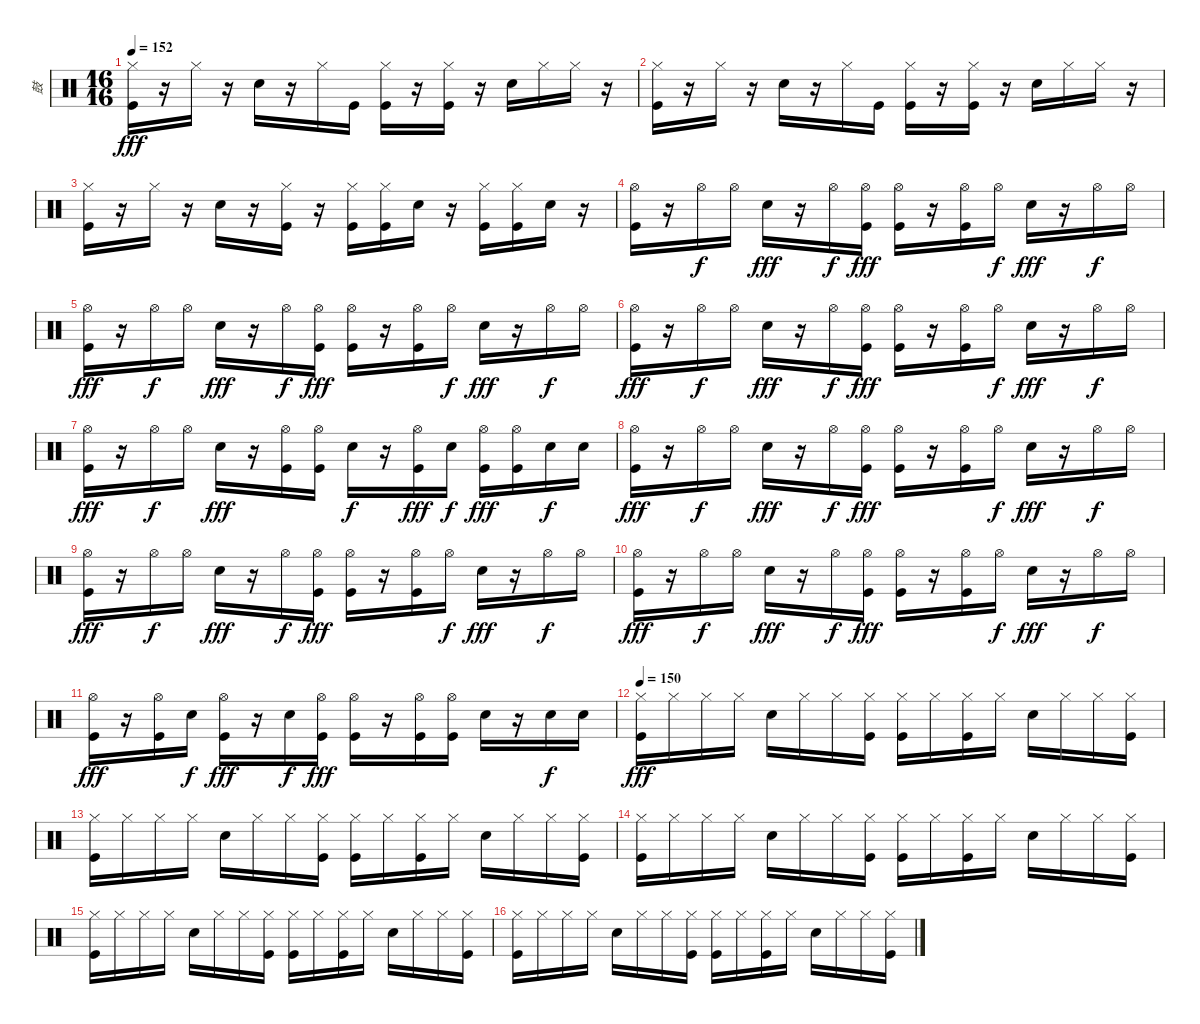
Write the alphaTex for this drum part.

\track ("鼓" "鼓") {instrument percussion}
\staff {score}
\articulation defaults
\ts (16 16)
\tempo 152
\clef neutral
\ks c
("Kick (hit)" "Hi-Hat (closed)").16{dy fff} r.16 "Hi-Hat (closed)".16 r.16 "Snare (hit) 2".16 r.16 "Hi-Hat (closed)".16 "Kick (hit)".16 ("Hi-Hat (closed)" "Kick (hit)").16 r.16 ("Hi-Hat (closed)" "Kick (hit)").16 r.16 "Snare (hit) 2".16 "Hi-Hat (closed)".16 "Hi-Hat (closed)".16 r.16 |
("Kick (hit)" "Hi-Hat (closed)").16 r.16 "Hi-Hat (closed)".16 r.16 "Snare (hit) 2".16 r.16 "Hi-Hat (closed)".16 "Kick (hit)".16 ("Hi-Hat (closed)" "Kick (hit)").16 r.16 ("Hi-Hat (closed)" "Kick (hit)").16 r.16 "Snare (hit) 2".16 "Hi-Hat (closed)".16 "Hi-Hat (closed)".16 r.16 |
("Kick (hit)" "Hi-Hat (closed)").16 r.16 "Hi-Hat (closed)".16 r.16 "Snare (hit) 2".16 r.16 ("Hi-Hat (closed)" "Kick (hit)").16 r.16 ("Hi-Hat (closed)" "Kick (hit)").16 ("Hi-Hat (closed)" "Kick (hit)").16 "Snare (hit) 2".16 r.16 ("Hi-Hat (closed)" "Kick (hit)").16 ("Hi-Hat (closed)" "Kick (hit)").16 "Snare (hit) 2".16 r.16 |
("Kick (hit)" "Hi-Hat (open)").16 r.16 "Hi-Hat (open)".16{dy f} "Hi-Hat (open)".16 "Snare (hit) 2".16{dy fff} r.16 "Hi-Hat (open)".16{dy f} ("Kick (hit)" "Hi-Hat (open)").16{dy fff} ("Kick (hit)" "Hi-Hat (open)").16 r.16 ("Kick (hit)" "Hi-Hat (open)").16 "Hi-Hat (open)".16{dy f} "Snare (hit) 2".16{dy fff} r.16 "Hi-Hat (open)".16{dy f} "Hi-Hat (open)".16 |
("Kick (hit)" "Hi-Hat (open)").16{dy fff} r.16 "Hi-Hat (open)".16{dy f} "Hi-Hat (open)".16 "Snare (hit) 2".16{dy fff} r.16 "Hi-Hat (open)".16{dy f} ("Kick (hit)" "Hi-Hat (open)").16{dy fff} ("Kick (hit)" "Hi-Hat (open)").16 r.16 ("Kick (hit)" "Hi-Hat (open)").16 "Hi-Hat (open)".16{dy f} "Snare (hit) 2".16{dy fff} r.16 "Hi-Hat (open)".16{dy f} "Hi-Hat (open)".16 |
("Kick (hit)" "Hi-Hat (open)").16{dy fff} r.16 "Hi-Hat (open)".16{dy f} "Hi-Hat (open)".16 "Snare (hit) 2".16{dy fff} r.16 "Hi-Hat (open)".16{dy f} ("Kick (hit)" "Hi-Hat (open)").16{dy fff} ("Kick (hit)" "Hi-Hat (open)").16 r.16 ("Kick (hit)" "Hi-Hat (open)").16 "Hi-Hat (open)".16{dy f} "Snare (hit) 2".16{dy fff} r.16 "Hi-Hat (open)".16{dy f} "Hi-Hat (open)".16 |
("Kick (hit)" "Hi-Hat (open)").16{dy fff} r.16 "Hi-Hat (open)".16{dy f} "Hi-Hat (open)".16 "Snare (hit) 2".16{dy fff} r.16 ("Hi-Hat (open)" "Kick (hit)").16 ("Hi-Hat (open)" "Kick (hit)").16 "Snare (hit) 2".16{dy f} r.16 ("Hi-Hat (open)" "Kick (hit)").16{dy fff} "Snare (hit) 2".16{dy f} ("Hi-Hat (open)" "Kick (hit)").16{dy fff} ("Hi-Hat (open)" "Kick (hit)").16 "Snare (hit) 2".16{dy f} "Snare (hit) 2".16 |
("Kick (hit)" "Hi-Hat (open)").16{dy fff} r.16 "Hi-Hat (open)".16{dy f} "Hi-Hat (open)".16 "Snare (hit) 2".16{dy fff} r.16 "Hi-Hat (open)".16{dy f} ("Kick (hit)" "Hi-Hat (open)").16{dy fff} ("Kick (hit)" "Hi-Hat (open)").16 r.16 ("Kick (hit)" "Hi-Hat (open)").16 "Hi-Hat (open)".16{dy f} "Snare (hit) 2".16{dy fff} r.16 "Hi-Hat (open)".16{dy f} "Hi-Hat (open)".16 |
("Kick (hit)" "Hi-Hat (open)").16{dy fff} r.16 "Hi-Hat (open)".16{dy f} "Hi-Hat (open)".16 "Snare (hit) 2".16{dy fff} r.16 "Hi-Hat (open)".16{dy f} ("Kick (hit)" "Hi-Hat (open)").16{dy fff} ("Kick (hit)" "Hi-Hat (open)").16 r.16 ("Kick (hit)" "Hi-Hat (open)").16 "Hi-Hat (open)".16{dy f} "Snare (hit) 2".16{dy fff} r.16 "Hi-Hat (open)".16{dy f} "Hi-Hat (open)".16 |
("Kick (hit)" "Hi-Hat (open)").16{dy fff} r.16 "Hi-Hat (open)".16{dy f} "Hi-Hat (open)".16 "Snare (hit) 2".16{dy fff} r.16 "Hi-Hat (open)".16{dy f} ("Kick (hit)" "Hi-Hat (open)").16{dy fff} ("Kick (hit)" "Hi-Hat (open)").16 r.16 ("Kick (hit)" "Hi-Hat (open)").16 "Hi-Hat (open)".16{dy f} "Snare (hit) 2".16{dy fff} r.16 "Hi-Hat (open)".16{dy f} "Hi-Hat (open)".16 |
("Kick (hit)" "Hi-Hat (open)").16{dy fff} r.16 ("Hi-Hat (open)" "Kick (hit)").16 "Snare (hit) 2".16{dy f} ("Hi-Hat (open)" "Kick (hit)").16{dy fff} r.16 "Snare (hit) 2".16{dy f} ("Hi-Hat (open)" "Kick (hit)").16{dy fff} ("Hi-Hat (open)" "Kick (hit)").16 r.16 ("Hi-Hat (open)" "Kick (hit)").16 ("Hi-Hat (open)" "Kick (hit)").16 "Snare (hit) 2".16 r.16 "Snare (hit) 2".16{dy f} "Snare (hit) 2".16 |
\tempo 150
("Hi-Hat (closed)" "Kick (hit)").16{dy fff} "Hi-Hat (closed)".16 "Hi-Hat (closed)".16 "Hi-Hat (closed)".16 "Snare (hit) 2".16 "Hi-Hat (closed)".16 "Hi-Hat (closed)".16 ("Hi-Hat (closed)" "Kick (hit)").16 ("Hi-Hat (closed)" "Kick (hit)").16 "Hi-Hat (closed)".16 ("Hi-Hat (closed)" "Kick (hit)").16 "Hi-Hat (closed)".16 "Snare (hit) 2".16 "Hi-Hat (closed)".16 "Hi-Hat (closed)".16 ("Hi-Hat (closed)" "Kick (hit)").16 |
("Hi-Hat (closed)" "Kick (hit)").16 "Hi-Hat (closed)".16 "Hi-Hat (closed)".16 "Hi-Hat (closed)".16 "Snare (hit) 2".16 "Hi-Hat (closed)".16 "Hi-Hat (closed)".16 ("Hi-Hat (closed)" "Kick (hit)").16 ("Hi-Hat (closed)" "Kick (hit)").16 "Hi-Hat (closed)".16 ("Hi-Hat (closed)" "Kick (hit)").16 "Hi-Hat (closed)".16 "Snare (hit) 2".16 "Hi-Hat (closed)".16 "Hi-Hat (closed)".16 ("Hi-Hat (closed)" "Kick (hit)").16 |
("Hi-Hat (closed)" "Kick (hit)").16 "Hi-Hat (closed)".16 "Hi-Hat (closed)".16 "Hi-Hat (closed)".16 "Snare (hit) 2".16 "Hi-Hat (closed)".16 "Hi-Hat (closed)".16 ("Hi-Hat (closed)" "Kick (hit)").16 ("Hi-Hat (closed)" "Kick (hit)").16 "Hi-Hat (closed)".16 ("Hi-Hat (closed)" "Kick (hit)").16 "Hi-Hat (closed)".16 "Snare (hit) 2".16 "Hi-Hat (closed)".16 "Hi-Hat (closed)".16 ("Hi-Hat (closed)" "Kick (hit)").16 |
("Hi-Hat (closed)" "Kick (hit)").16 "Hi-Hat (closed)".16 "Hi-Hat (closed)".16 "Hi-Hat (closed)".16 "Snare (hit) 2".16 "Hi-Hat (closed)".16 "Hi-Hat (closed)".16 ("Hi-Hat (closed)" "Kick (hit)").16 ("Hi-Hat (closed)" "Kick (hit)").16 "Hi-Hat (closed)".16 ("Hi-Hat (closed)" "Kick (hit)").16 "Hi-Hat (closed)".16 "Snare (hit) 2".16 "Hi-Hat (closed)".16 "Hi-Hat (closed)".16 ("Hi-Hat (closed)" "Kick (hit)").16 |
("Hi-Hat (closed)" "Kick (hit)").16 "Hi-Hat (closed)".16 "Hi-Hat (closed)".16 "Hi-Hat (closed)".16 "Snare (hit) 2".16 "Hi-Hat (closed)".16 "Hi-Hat (closed)".16 ("Hi-Hat (closed)" "Kick (hit)").16 ("Hi-Hat (closed)" "Kick (hit)").16 "Hi-Hat (closed)".16 ("Hi-Hat (closed)" "Kick (hit)").16 "Hi-Hat (closed)".16 "Snare (hit) 2".16 "Hi-Hat (closed)".16 "Hi-Hat (closed)".16 ("Hi-Hat (closed)" "Kick (hit)").16
